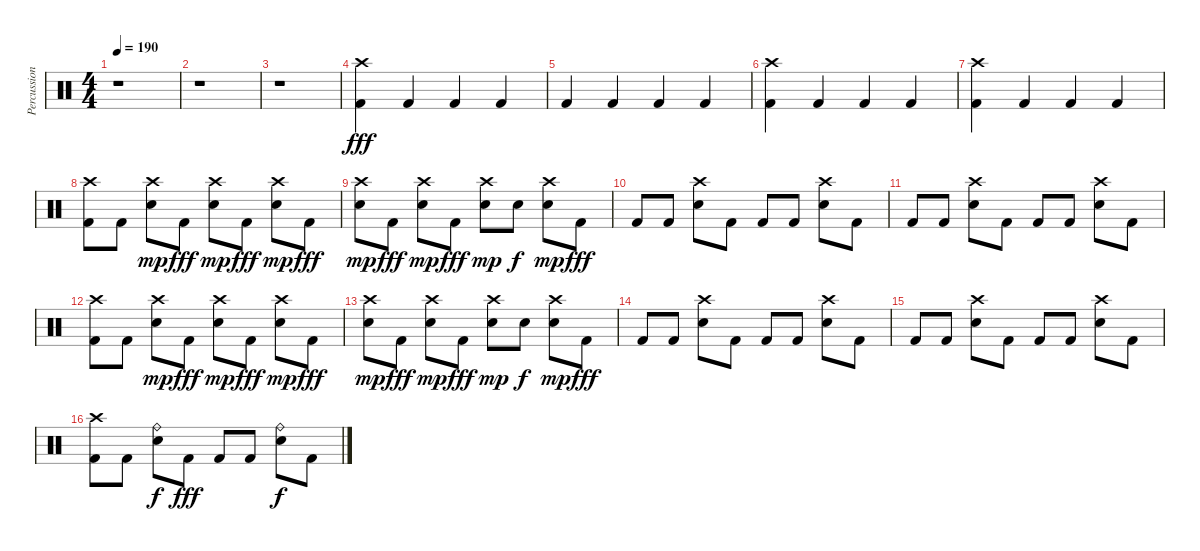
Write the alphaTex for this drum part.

\track ("Percussion" "Percussion") {instrument percussion}
\staff {score}
\articulation defaults
\ts (4 4)
\tempo 190
\clef neutral
\ks c
r.1{dy p} |
r.1 |
r.1 |
("Crash high (hit)" "Kick (hit) 2").4{dy fff} "Kick (hit) 2".4 "Kick (hit) 2".4 "Kick (hit) 2".4 |
"Kick (hit) 2".4 "Kick (hit) 2".4 "Kick (hit) 2".4 "Kick (hit) 2".4 |
("Crash high (hit)" "Kick (hit) 2").4 "Kick (hit) 2".4 "Kick (hit) 2".4 "Kick (hit) 2".4 |
("Crash high (hit)" "Kick (hit) 2").4 "Kick (hit) 2".4 "Kick (hit) 2".4 "Kick (hit) 2".4 |
("Crash high (hit)" "Kick (hit) 2").8 "Kick (hit) 2".8 ("Crash high (hit)" "Electric Snare (hit)").8{dy mp} "Kick (hit) 2".8{dy fff} ("Crash high (hit)" "Electric Snare (hit)").8{dy mp} "Kick (hit) 2".8{dy fff} ("Crash high (hit)" "Electric Snare (hit)").8{dy mp} "Kick (hit) 2".8{dy fff} |
("Crash high (hit)" "Electric Snare (hit)").8{dy mp} "Kick (hit) 2".8{dy fff} ("Crash high (hit)" "Electric Snare (hit)").8{dy mp} "Kick (hit) 2".8{dy fff} ("Crash high (hit)" "Electric Snare (hit)").8{dy mp} "Electric Snare (hit)".8{dy f} ("Crash high (hit)" "Electric Snare (hit)").8{dy mp} "Kick (hit) 2".8{dy fff} |
"Kick (hit) 2".8 "Kick (hit) 2".8 ("Crash high (hit)" "Electric Snare (hit)").8 "Kick (hit) 2".8 "Kick (hit) 2".8 "Kick (hit) 2".8 ("Crash high (hit)" "Electric Snare (hit)").8 "Kick (hit) 2".8 |
"Kick (hit) 2".8 "Kick (hit) 2".8 ("Crash high (hit)" "Electric Snare (hit)").8 "Kick (hit) 2".8 "Kick (hit) 2".8 "Kick (hit) 2".8 ("Crash high (hit)" "Electric Snare (hit)").8 "Kick (hit) 2".8 |
("Crash high (hit)" "Kick (hit) 2").8 "Kick (hit) 2".8 ("Crash high (hit)" "Electric Snare (hit)").8{dy mp} "Kick (hit) 2".8{dy fff} ("Crash high (hit)" "Electric Snare (hit)").8{dy mp} "Kick (hit) 2".8{dy fff} ("Crash high (hit)" "Electric Snare (hit)").8{dy mp} "Kick (hit) 2".8{dy fff} |
("Crash high (hit)" "Electric Snare (hit)").8{dy mp} "Kick (hit) 2".8{dy fff} ("Crash high (hit)" "Electric Snare (hit)").8{dy mp} "Kick (hit) 2".8{dy fff} ("Crash high (hit)" "Electric Snare (hit)").8{dy mp} "Electric Snare (hit)".8{dy f} ("Crash high (hit)" "Electric Snare (hit)").8{dy mp} "Kick (hit) 2".8{dy fff} |
"Kick (hit) 2".8 "Kick (hit) 2".8 ("Crash high (hit)" "Electric Snare (hit)").8 "Kick (hit) 2".8 "Kick (hit) 2".8 "Kick (hit) 2".8 ("Crash high (hit)" "Electric Snare (hit)").8 "Kick (hit) 2".8 |
"Kick (hit) 2".8 "Kick (hit) 2".8 ("Crash high (hit)" "Electric Snare (hit)").8 "Kick (hit) 2".8 "Kick (hit) 2".8 "Kick (hit) 2".8 ("Crash high (hit)" "Electric Snare (hit)").8 "Kick (hit) 2".8 |
("Crash high (hit)" "Kick (hit) 2").8 "Kick (hit) 2".8 ("Ride (bell)" "Electric Snare (hit)").8{dy f} "Kick (hit) 2".8{dy fff} "Kick (hit) 2".8 "Kick (hit) 2".8 ("Ride (bell)" "Electric Snare (hit)").8{dy f} "Kick (hit) 2".8
